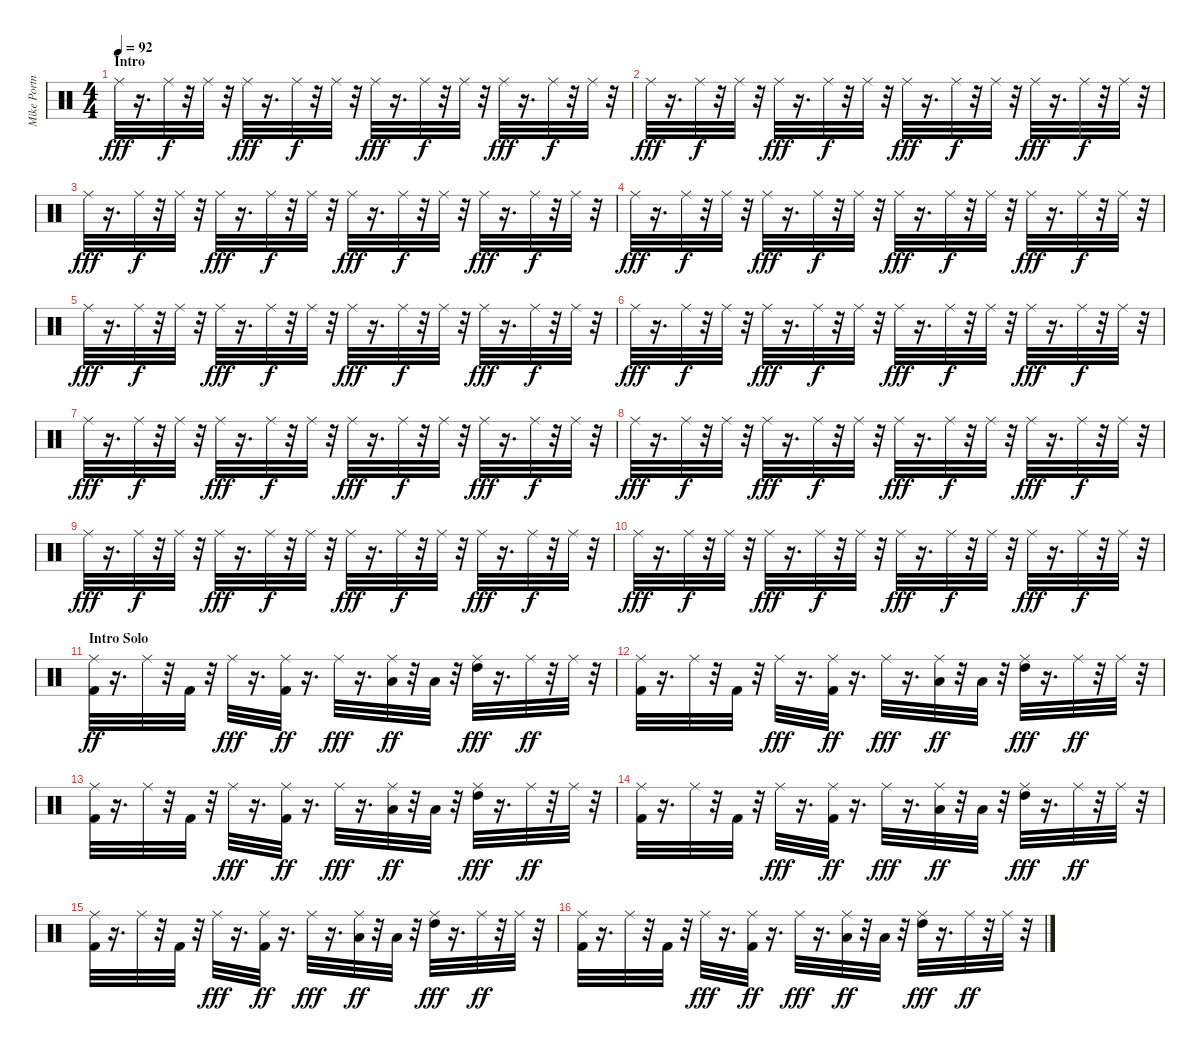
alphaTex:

\track ("Mike Portnoy" "Mike Portn") {instrument percussion}
\staff {score}
\articulation defaults
\ts (4 4)
\section ("" "Intro")
\tempo 92
\clef neutral
\ks c "Ride (middle)".32{dy fff}
r.16{d} "Ride (middle)".32{dy f} r.32 "Ride (middle)".32 r.32 "Ride (middle)".32{dy fff} r.16{d} "Ride (middle)".32{dy f} r.32 "Ride (middle)".32 r.32 "Ride (middle)".32{dy fff} r.16{d} "Ride (middle)".32{dy f} r.32 "Ride (middle)".32 r.32 "Ride (middle)".32{dy fff} r.16{d} "Ride (middle)".32{dy f} r.32 "Ride (middle)".32 r.32 |
"Ride (middle)".32{dy fff} r.16{d} "Ride (middle)".32{dy f} r.32 "Ride (middle)".32 r.32 "Ride (middle)".32{dy fff} r.16{d} "Ride (middle)".32{dy f} r.32 "Ride (middle)".32 r.32 "Ride (middle)".32{dy fff} r.16{d} "Ride (middle)".32{dy f} r.32 "Ride (middle)".32 r.32 "Ride (middle)".32{dy fff} r.16{d} "Ride (middle)".32{dy f} r.32 "Ride (middle)".32 r.32 |
"Ride (middle)".32{dy fff} r.16{d} "Ride (middle)".32{dy f} r.32 "Ride (middle)".32 r.32 "Ride (middle)".32{dy fff} r.16{d} "Ride (middle)".32{dy f} r.32 "Ride (middle)".32 r.32 "Ride (middle)".32{dy fff} r.16{d} "Ride (middle)".32{dy f} r.32 "Ride (middle)".32 r.32 "Ride (middle)".32{dy fff} r.16{d} "Ride (middle)".32{dy f} r.32 "Ride (middle)".32 r.32 |
"Ride (middle)".32{dy fff} r.16{d} "Ride (middle)".32{dy f} r.32 "Ride (middle)".32 r.32 "Ride (middle)".32{dy fff} r.16{d} "Ride (middle)".32{dy f} r.32 "Ride (middle)".32 r.32 "Ride (middle)".32{dy fff} r.16{d} "Ride (middle)".32{dy f} r.32 "Ride (middle)".32 r.32 "Ride (middle)".32{dy fff} r.16{d} "Ride (middle)".32{dy f} r.32 "Ride (middle)".32 r.32 |
"Ride (middle)".32{dy fff} r.16{d} "Ride (middle)".32{dy f} r.32 "Ride (middle)".32 r.32 "Ride (middle)".32{dy fff} r.16{d} "Ride (middle)".32{dy f} r.32 "Ride (middle)".32 r.32 "Ride (middle)".32{dy fff} r.16{d} "Ride (middle)".32{dy f} r.32 "Ride (middle)".32 r.32 "Ride (middle)".32{dy fff} r.16{d} "Ride (middle)".32{dy f} r.32 "Ride (middle)".32 r.32 |
"Ride (middle)".32{dy fff} r.16{d} "Ride (middle)".32{dy f} r.32 "Ride (middle)".32 r.32 "Ride (middle)".32{dy fff} r.16{d} "Ride (middle)".32{dy f} r.32 "Ride (middle)".32 r.32 "Ride (middle)".32{dy fff} r.16{d} "Ride (middle)".32{dy f} r.32 "Ride (middle)".32 r.32 "Ride (middle)".32{dy fff} r.16{d} "Ride (middle)".32{dy f} r.32 "Ride (middle)".32 r.32 |
"Ride (middle)".32{dy fff} r.16{d} "Ride (middle)".32{dy f} r.32 "Ride (middle)".32 r.32 "Ride (middle)".32{dy fff} r.16{d} "Ride (middle)".32{dy f} r.32 "Ride (middle)".32 r.32 "Ride (middle)".32{dy fff} r.16{d} "Ride (middle)".32{dy f} r.32 "Ride (middle)".32 r.32 "Ride (middle)".32{dy fff} r.16{d} "Ride (middle)".32{dy f} r.32 "Ride (middle)".32 r.32 |
"Ride (middle)".32{dy fff} r.16{d} "Ride (middle)".32{dy f} r.32 "Ride (middle)".32 r.32 "Ride (middle)".32{dy fff} r.16{d} "Ride (middle)".32{dy f} r.32 "Ride (middle)".32 r.32 "Ride (middle)".32{dy fff} r.16{d} "Ride (middle)".32{dy f} r.32 "Ride (middle)".32 r.32 "Ride (middle)".32{dy fff} r.16{d} "Ride (middle)".32{dy f} r.32 "Ride (middle)".32 r.32 |
"Ride (middle)".32{dy fff} r.16{d} "Ride (middle)".32{dy f} r.32 "Ride (middle)".32 r.32 "Ride (middle)".32{dy fff} r.16{d} "Ride (middle)".32{dy f} r.32 "Ride (middle)".32 r.32 "Ride (middle)".32{dy fff} r.16{d} "Ride (middle)".32{dy f} r.32 "Ride (middle)".32 r.32 "Ride (middle)".32{dy fff} r.16{d} "Ride (middle)".32{dy f} r.32 "Ride (middle)".32 r.32 |
"Ride (middle)".32{dy fff} r.16{d} "Ride (middle)".32{dy f} r.32 "Ride (middle)".32 r.32 "Ride (middle)".32{dy fff} r.16{d} "Ride (middle)".32{dy f} r.32 "Ride (middle)".32 r.32 "Ride (middle)".32{dy fff} r.16{d} "Ride (middle)".32{dy f} r.32 "Ride (middle)".32 r.32 "Ride (middle)".32{dy fff} r.16{d} "Ride (middle)".32{dy f} r.32 "Ride (middle)".32 r.32 |
\section ("" "Intro Solo")
("Ride (middle)" "Kick (hit) 2").32{dy ff} r.16{d} "Ride (middle)".32 r.32 "Kick (hit) 2".32 r.32 "Ride (middle)".32{dy fff} r.16{d} ("Ride (middle)" "Kick (hit) 2").32{dy ff} r.16{d} "Ride (middle)".32{dy fff} r.16{d} ("Ride (middle)" "Low Tom (hit)").32{dy ff} r.32 "Low Tom (hit)".32 r.32 ("Ride (middle)" "High Tom (hit)").32{dy fff} r.16{d} "Ride (middle)".32{dy ff} r.32 "Ride (middle)".32 r.32 |
("Ride (middle)" "Kick (hit) 2").32 r.16{d} "Ride (middle)".32 r.32 "Kick (hit) 2".32 r.32 "Ride (middle)".32{dy fff} r.16{d} ("Ride (middle)" "Kick (hit) 2").32{dy ff} r.16{d} "Ride (middle)".32{dy fff} r.16{d} ("Ride (middle)" "Low Tom (hit)").32{dy ff} r.32 "Low Tom (hit)".32 r.32 ("Ride (middle)" "High Tom (hit)").32{dy fff} r.16{d} "Ride (middle)".32{dy ff} r.32 "Ride (middle)".32 r.32 |
("Ride (middle)" "Kick (hit) 2").32 r.16{d} "Ride (middle)".32 r.32 "Kick (hit) 2".32 r.32 "Ride (middle)".32{dy fff} r.16{d} ("Ride (middle)" "Kick (hit) 2").32{dy ff} r.16{d} "Ride (middle)".32{dy fff} r.16{d} ("Ride (middle)" "Low Tom (hit)").32{dy ff} r.32 "Low Tom (hit)".32 r.32 ("Ride (middle)" "High Tom (hit)").32{dy fff} r.16{d} "Ride (middle)".32{dy ff} r.32 "Ride (middle)".32 r.32 |
("Ride (middle)" "Kick (hit) 2").32 r.16{d} "Ride (middle)".32 r.32 "Kick (hit) 2".32 r.32 "Ride (middle)".32{dy fff} r.16{d} ("Ride (middle)" "Kick (hit) 2").32{dy ff} r.16{d} "Ride (middle)".32{dy fff} r.16{d} ("Ride (middle)" "Low Tom (hit)").32{dy ff} r.32 "Low Tom (hit)".32 r.32 ("Ride (middle)" "High Tom (hit)").32{dy fff} r.16{d} "Ride (middle)".32{dy ff} r.32 "Ride (middle)".32 r.32 |
("Ride (middle)" "Kick (hit) 2").32 r.16{d} "Ride (middle)".32 r.32 "Kick (hit) 2".32 r.32 "Ride (middle)".32{dy fff} r.16{d} ("Ride (middle)" "Kick (hit) 2").32{dy ff} r.16{d} "Ride (middle)".32{dy fff} r.16{d} ("Ride (middle)" "Low Tom (hit)").32{dy ff} r.32 "Low Tom (hit)".32 r.32 ("Ride (middle)" "High Tom (hit)").32{dy fff} r.16{d} "Ride (middle)".32{dy ff} r.32 "Ride (middle)".32 r.32 |
("Ride (middle)" "Kick (hit) 2").32 r.16{d} "Ride (middle)".32 r.32 "Kick (hit) 2".32 r.32 "Ride (middle)".32{dy fff} r.16{d} ("Ride (middle)" "Kick (hit) 2").32{dy ff} r.16{d} "Ride (middle)".32{dy fff} r.16{d} ("Ride (middle)" "Low Tom (hit)").32{dy ff} r.32 "Low Tom (hit)".32 r.32 ("Ride (middle)" "High Tom (hit)").32{dy fff} r.16{d} "Ride (middle)".32{dy ff} r.32 "Ride (middle)".32 r.32
